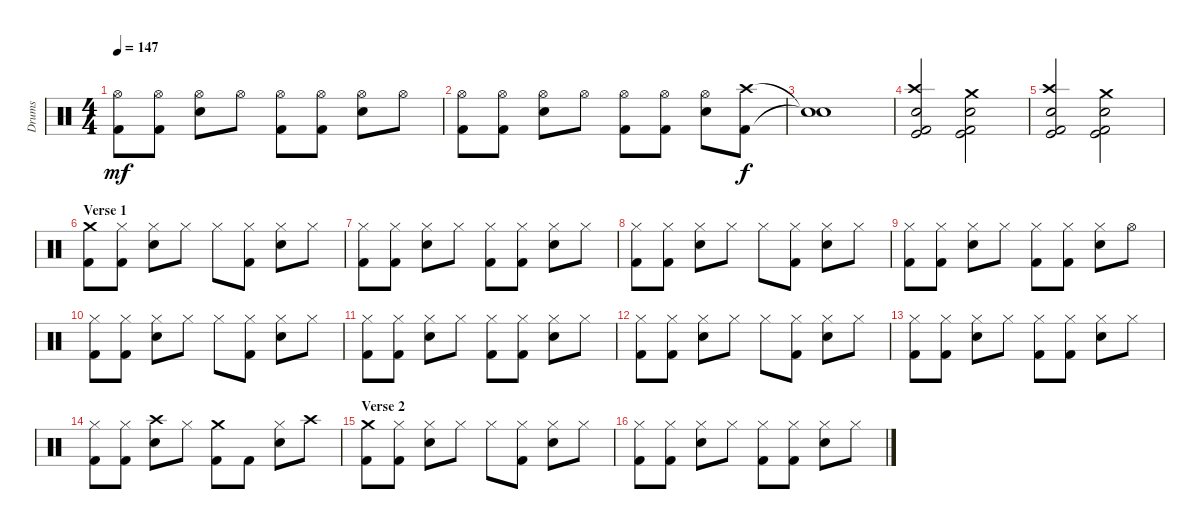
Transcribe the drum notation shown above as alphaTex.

\track ("Drums" "Drums") {instrument percussion}
\staff {score}
\articulation defaults
\ts (4 4)
\tempo 147
\clef neutral
\ks c
("Hi-Hat (open)" "Kick (hit) 2").8{dy mf} ("Hi-Hat (open)" "Kick (hit) 2").8 ("Hi-Hat (open)" "Snare (hit) 2").8 "Hi-Hat (open)".8 ("Hi-Hat (open)" "Kick (hit) 2").8 ("Hi-Hat (open)" "Kick (hit) 2").8 ("Hi-Hat (open)" "Snare (hit) 2").8 "Hi-Hat (open)".8 |
("Hi-Hat (open)" "Kick (hit) 2").8 ("Hi-Hat (open)" "Kick (hit) 2").8 ("Hi-Hat (open)" "Snare (hit) 2").8 "Hi-Hat (open)".8 ("Hi-Hat (open)" "Kick (hit) 2").8 ("Hi-Hat (open)" "Kick (hit) 2").8 ("Hi-Hat (open)" "Snare (hit) 2").8 ("Crash high (hit)" "Kick (hit) 2").8{dy f} |
("Snare (hit)"{t} "Snare (hit)"{t}).1 |
("Crash high (hit)" "Kick (hit) 2" "Kick (hit)" "Snare (hit) 2").2 ("Crash medium (hit)" "Kick (hit) 2" "Kick (hit)" "Snare (hit) 2").2 |
("Crash high (hit)" "Kick (hit) 2" "Kick (hit)" "Snare (hit) 2").2 ("Crash medium (hit)" "Kick (hit) 2" "Kick (hit)" "Snare (hit) 2").2 |
\section ("" "Verse 1")
("Crash medium (hit)" "Kick (hit) 2").8 ("Hi-Hat (closed)" "Kick (hit) 2").8 ("Hi-Hat (closed)" "Snare (hit) 2").8 "Hi-Hat (closed)".8 "Hi-Hat (closed)".8 ("Hi-Hat (closed)" "Kick (hit) 2").8 ("Hi-Hat (closed)" "Snare (hit) 2").8 "Hi-Hat (closed)".8 |
("Hi-Hat (closed)" "Kick (hit) 2").8 ("Hi-Hat (closed)" "Kick (hit) 2").8 ("Hi-Hat (closed)" "Snare (hit) 2").8 "Hi-Hat (closed)".8 ("Hi-Hat (closed)" "Kick (hit) 2").8 ("Hi-Hat (closed)" "Kick (hit) 2").8 ("Hi-Hat (closed)" "Snare (hit) 2").8 "Hi-Hat (closed)".8 |
("Hi-Hat (closed)" "Kick (hit) 2").8 ("Hi-Hat (closed)" "Kick (hit) 2").8 ("Hi-Hat (closed)" "Snare (hit) 2").8 "Hi-Hat (closed)".8 "Hi-Hat (closed)".8 ("Hi-Hat (closed)" "Kick (hit) 2").8 ("Hi-Hat (closed)" "Snare (hit) 2").8 "Hi-Hat (closed)".8 |
("Hi-Hat (closed)" "Kick (hit) 2").8 ("Hi-Hat (closed)" "Kick (hit) 2").8 ("Hi-Hat (closed)" "Snare (hit) 2").8 "Hi-Hat (closed)".8 ("Hi-Hat (closed)" "Kick (hit) 2").8 ("Hi-Hat (closed)" "Kick (hit) 2").8 ("Hi-Hat (closed)" "Snare (hit) 2").8 "Hi-Hat (open)".8 |
("Hi-Hat (closed)" "Kick (hit) 2").8 ("Hi-Hat (closed)" "Kick (hit) 2").8 ("Hi-Hat (closed)" "Snare (hit) 2").8 "Hi-Hat (closed)".8 "Hi-Hat (closed)".8 ("Hi-Hat (closed)" "Kick (hit) 2").8 ("Hi-Hat (closed)" "Snare (hit) 2").8 "Hi-Hat (closed)".8 |
("Hi-Hat (closed)" "Kick (hit) 2").8 ("Hi-Hat (closed)" "Kick (hit) 2").8 ("Hi-Hat (closed)" "Snare (hit) 2").8 "Hi-Hat (closed)".8 ("Hi-Hat (closed)" "Kick (hit) 2").8 ("Hi-Hat (closed)" "Kick (hit) 2").8 ("Hi-Hat (closed)" "Snare (hit) 2").8 "Hi-Hat (closed)".8 |
("Hi-Hat (closed)" "Kick (hit) 2").8 ("Hi-Hat (closed)" "Kick (hit) 2").8 ("Hi-Hat (closed)" "Snare (hit) 2").8 "Hi-Hat (closed)".8 "Hi-Hat (closed)".8 ("Hi-Hat (closed)" "Kick (hit) 2").8 ("Hi-Hat (closed)" "Snare (hit) 2").8 "Hi-Hat (closed)".8 |
("Hi-Hat (closed)" "Kick (hit) 2").8 ("Hi-Hat (closed)" "Kick (hit) 2").8 ("Hi-Hat (closed)" "Snare (hit) 2").8 "Hi-Hat (closed)".8 ("Hi-Hat (closed)" "Kick (hit) 2").8 ("Hi-Hat (closed)" "Kick (hit) 2").8 ("Hi-Hat (closed)" "Snare (hit) 2").8 "Hi-Hat (closed)".8 |
("Hi-Hat (closed)" "Kick (hit) 2").8 ("Hi-Hat (closed)" "Kick (hit) 2").8 ("Crash high (hit)" "Snare (hit) 2").8 "Hi-Hat (closed)".8 ("Crash medium (hit)" "Kick (hit) 2").8 "Kick (hit) 2".8 ("Hi-Hat (closed)" "Snare (hit) 2").8 "Crash high (hit)".8 |
\section ("" "Verse 2")
("Crash medium (hit)" "Kick (hit) 2").8 ("Hi-Hat (closed)" "Kick (hit) 2").8 ("Hi-Hat (closed)" "Snare (hit) 2").8 "Hi-Hat (closed)".8 "Hi-Hat (closed)".8 ("Hi-Hat (closed)" "Kick (hit) 2").8 ("Hi-Hat (closed)" "Snare (hit) 2").8 "Hi-Hat (closed)".8 |
("Hi-Hat (closed)" "Kick (hit) 2").8 ("Hi-Hat (closed)" "Kick (hit) 2").8 ("Hi-Hat (closed)" "Snare (hit) 2").8 "Hi-Hat (closed)".8 ("Hi-Hat (closed)" "Kick (hit) 2").8 ("Hi-Hat (closed)" "Kick (hit) 2").8 ("Hi-Hat (closed)" "Snare (hit) 2").8 "Hi-Hat (closed)".8
